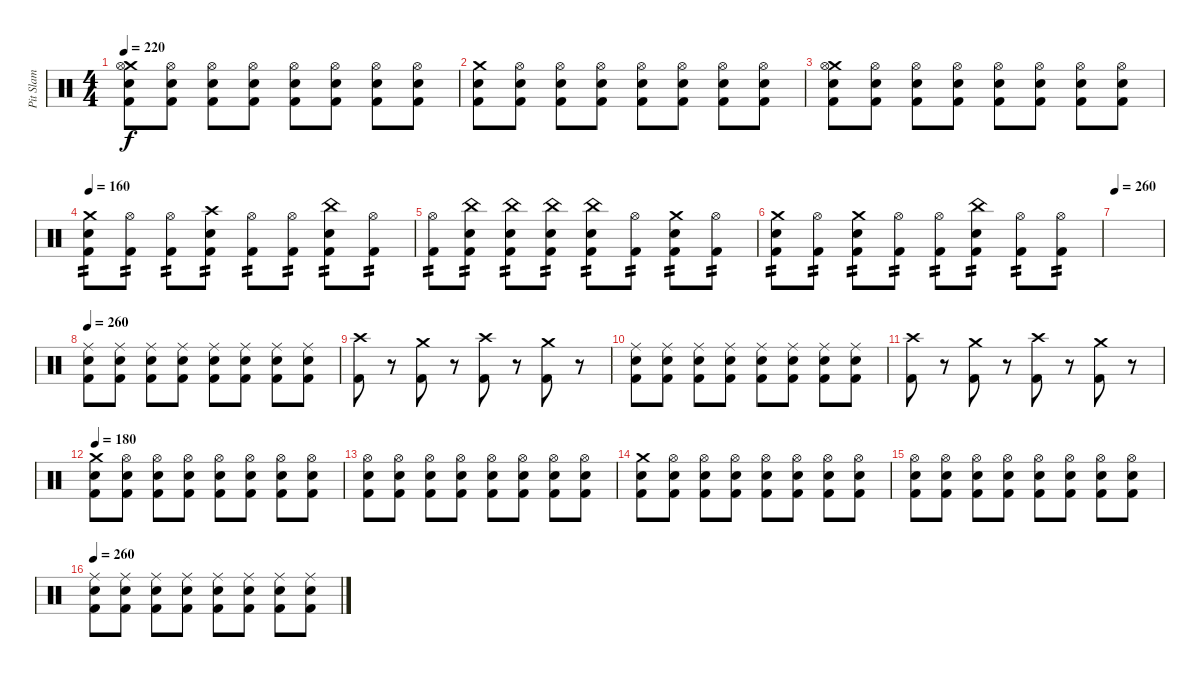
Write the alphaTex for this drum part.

\track ("Pit Slam" "Pit Slam") {instrument percussion}
\staff {score}
\articulation defaults
\ts (4 4)
\tempo 220
\clef neutral
\ks c
("Crash medium (hit)" "Hi-Hat (open)" "Electric Snare (hit)" "Kick (hit) 2").8{dy f} ("Hi-Hat (open)" "Electric Snare (hit)" "Kick (hit) 2").8 ("Hi-Hat (open)" "Electric Snare (hit)" "Kick (hit) 2").8 ("Hi-Hat (open)" "Electric Snare (hit)" "Kick (hit) 2").8 ("Hi-Hat (open)" "Electric Snare (hit)" "Kick (hit) 2").8 ("Hi-Hat (open)" "Electric Snare (hit)" "Kick (hit) 2").8 ("Hi-Hat (open)" "Electric Snare (hit)" "Kick (hit) 2").8 ("Hi-Hat (open)" "Electric Snare (hit)" "Kick (hit) 2").8 |
("Crash medium (hit)" "Electric Snare (hit)" "Kick (hit) 2").8 ("Hi-Hat (open)" "Electric Snare (hit)" "Kick (hit) 2").8 ("Hi-Hat (open)" "Electric Snare (hit)" "Kick (hit) 2").8 ("Hi-Hat (open)" "Electric Snare (hit)" "Kick (hit) 2").8 ("Hi-Hat (open)" "Electric Snare (hit)" "Kick (hit) 2").8 ("Hi-Hat (open)" "Electric Snare (hit)" "Kick (hit) 2").8 ("Hi-Hat (open)" "Electric Snare (hit)" "Kick (hit) 2").8 ("Hi-Hat (open)" "Electric Snare (hit)" "Kick (hit) 2").8 |
("Crash medium (hit)" "Hi-Hat (open)" "Electric Snare (hit)" "Kick (hit) 2").8 ("Hi-Hat (open)" "Electric Snare (hit)" "Kick (hit) 2").8 ("Hi-Hat (open)" "Electric Snare (hit)" "Kick (hit) 2").8 ("Hi-Hat (open)" "Electric Snare (hit)" "Kick (hit) 2").8 ("Hi-Hat (open)" "Electric Snare (hit)" "Kick (hit) 2").8 ("Hi-Hat (open)" "Electric Snare (hit)" "Kick (hit) 2").8 ("Hi-Hat (open)" "Electric Snare (hit)" "Kick (hit) 2").8 ("Hi-Hat (open)" "Electric Snare (hit)" "Kick (hit) 2").8 |
\tempo 160
("Crash medium (hit)" "Electric Snare (hit)" "Kick (hit) 2").8{tp 2} ("Hi-Hat (open)" "Kick (hit) 2").8{tp 2} ("Hi-Hat (open)" "Kick (hit) 2").8{tp 2} ("Crash high (hit)" "Electric Snare (hit)" "Kick (hit) 2").8{tp 2} ("Hi-Hat (open)" "Kick (hit) 2").8{tp 2} ("Hi-Hat (open)" "Kick (hit) 2").8{tp 2} ("China (hit)" "Electric Snare (hit)" "Kick (hit) 2").8{tp 2} ("Hi-Hat (open)" "Kick (hit) 2").8{tp 2} |
("Hi-Hat (open)" "Kick (hit) 2").8{tp 2} ("China (hit)" "Electric Snare (hit)" "Kick (hit) 2").8{tp 2} ("China (hit)" "Electric Snare (hit)" "Kick (hit) 2").8{tp 2} ("China (hit)" "Electric Snare (hit)" "Kick (hit) 2").8{tp 2} ("China (hit)" "Electric Snare (hit)" "Kick (hit) 2").8{tp 2} ("Hi-Hat (open)" "Kick (hit) 2").8{tp 2} ("Crash medium (hit)" "Electric Snare (hit)" "Kick (hit) 2").8{tp 2} ("Hi-Hat (open)" "Kick (hit) 2").8{tp 2} |
("Crash medium (hit)" "Electric Snare (hit)" "Kick (hit) 2").8{tp 2} ("Hi-Hat (open)" "Kick (hit) 2").8{tp 2} ("Crash medium (hit)" "Electric Snare (hit)" "Kick (hit) 2").8{tp 2} ("Hi-Hat (open)" "Kick (hit) 2").8{tp 2} ("Hi-Hat (open)" "Kick (hit) 2").8{tp 2} ("China (hit)" "Electric Snare (hit)" "Kick (hit) 2").8{tp 2} ("Hi-Hat (open)" "Kick (hit) 2").8{tp 2} ("Hi-Hat (open)" "Kick (hit) 2").8{tp 2} |
\tempo 260
|
\tempo 260
("Ride (middle)" "Electric Snare (hit)" "Kick (hit) 2").8 ("Ride (middle)" "Electric Snare (hit)" "Kick (hit) 2").8 ("Ride (middle)" "Electric Snare (hit)" "Kick (hit) 2").8 ("Ride (middle)" "Electric Snare (hit)" "Kick (hit) 2").8 ("Ride (middle)" "Electric Snare (hit)" "Kick (hit) 2").8 ("Ride (middle)" "Electric Snare (hit)" "Kick (hit) 2").8 ("Ride (middle)" "Electric Snare (hit)" "Kick (hit) 2").8 ("Ride (middle)" "Electric Snare (hit)" "Kick (hit) 2").8 |
("Crash high (hit)" "Kick (hit) 2").8 r.8 ("Crash medium (hit)" "Kick (hit) 2").8 r.8 ("Crash high (hit)" "Kick (hit) 2").8 r.8 ("Crash medium (hit)" "Kick (hit) 2").8 r.8 |
("Ride (middle)" "Electric Snare (hit)" "Kick (hit) 2").8 ("Ride (middle)" "Electric Snare (hit)" "Kick (hit) 2").8 ("Ride (middle)" "Electric Snare (hit)" "Kick (hit) 2").8 ("Ride (middle)" "Electric Snare (hit)" "Kick (hit) 2").8 ("Ride (middle)" "Electric Snare (hit)" "Kick (hit) 2").8 ("Ride (middle)" "Electric Snare (hit)" "Kick (hit) 2").8 ("Ride (middle)" "Electric Snare (hit)" "Kick (hit) 2").8 ("Ride (middle)" "Electric Snare (hit)" "Kick (hit) 2").8 |
("Crash high (hit)" "Kick (hit) 2").8 r.8 ("Crash medium (hit)" "Kick (hit) 2").8 r.8 ("Crash high (hit)" "Kick (hit) 2").8 r.8 ("Crash medium (hit)" "Kick (hit) 2").8 r.8 |
\tempo 180
("Crash medium (hit)" "Electric Snare (hit)" "Kick (hit) 2").8 ("Hi-Hat (open)" "Electric Snare (hit)" "Kick (hit) 2").8 ("Hi-Hat (open)" "Electric Snare (hit)" "Kick (hit) 2").8 ("Hi-Hat (open)" "Electric Snare (hit)" "Kick (hit) 2").8 ("Hi-Hat (open)" "Electric Snare (hit)" "Kick (hit) 2").8 ("Hi-Hat (open)" "Electric Snare (hit)" "Kick (hit) 2").8 ("Hi-Hat (open)" "Electric Snare (hit)" "Kick (hit) 2").8 ("Hi-Hat (open)" "Electric Snare (hit)" "Kick (hit) 2").8 |
("Hi-Hat (open)" "Electric Snare (hit)" "Kick (hit) 2").8 ("Hi-Hat (open)" "Electric Snare (hit)" "Kick (hit) 2").8 ("Hi-Hat (open)" "Electric Snare (hit)" "Kick (hit) 2").8 ("Hi-Hat (open)" "Electric Snare (hit)" "Kick (hit) 2").8 ("Hi-Hat (open)" "Electric Snare (hit)" "Kick (hit) 2").8 ("Hi-Hat (open)" "Electric Snare (hit)" "Kick (hit) 2").8 ("Hi-Hat (open)" "Electric Snare (hit)" "Kick (hit) 2").8 ("Hi-Hat (open)" "Electric Snare (hit)" "Kick (hit) 2").8 |
("Crash medium (hit)" "Electric Snare (hit)" "Kick (hit) 2").8 ("Hi-Hat (open)" "Electric Snare (hit)" "Kick (hit) 2").8 ("Hi-Hat (open)" "Electric Snare (hit)" "Kick (hit) 2").8 ("Hi-Hat (open)" "Electric Snare (hit)" "Kick (hit) 2").8 ("Hi-Hat (open)" "Electric Snare (hit)" "Kick (hit) 2").8 ("Hi-Hat (open)" "Electric Snare (hit)" "Kick (hit) 2").8 ("Hi-Hat (open)" "Electric Snare (hit)" "Kick (hit) 2").8 ("Hi-Hat (open)" "Electric Snare (hit)" "Kick (hit) 2").8 |
("Hi-Hat (open)" "Electric Snare (hit)" "Kick (hit) 2").8 ("Hi-Hat (open)" "Electric Snare (hit)" "Kick (hit) 2").8 ("Hi-Hat (open)" "Electric Snare (hit)" "Kick (hit) 2").8 ("Hi-Hat (open)" "Electric Snare (hit)" "Kick (hit) 2").8 ("Hi-Hat (open)" "Electric Snare (hit)" "Kick (hit) 2").8 ("Hi-Hat (open)" "Electric Snare (hit)" "Kick (hit) 2").8 ("Hi-Hat (open)" "Electric Snare (hit)" "Kick (hit) 2").8 ("Hi-Hat (open)" "Electric Snare (hit)" "Kick (hit) 2").8 |
\tempo 260
("Ride (middle)" "Electric Snare (hit)" "Kick (hit) 2").8 ("Ride (middle)" "Electric Snare (hit)" "Kick (hit) 2").8 ("Ride (middle)" "Electric Snare (hit)" "Kick (hit) 2").8 ("Ride (middle)" "Electric Snare (hit)" "Kick (hit) 2").8 ("Ride (middle)" "Electric Snare (hit)" "Kick (hit) 2").8 ("Ride (middle)" "Electric Snare (hit)" "Kick (hit) 2").8 ("Ride (middle)" "Electric Snare (hit)" "Kick (hit) 2").8 ("Ride (middle)" "Electric Snare (hit)" "Kick (hit) 2").8
